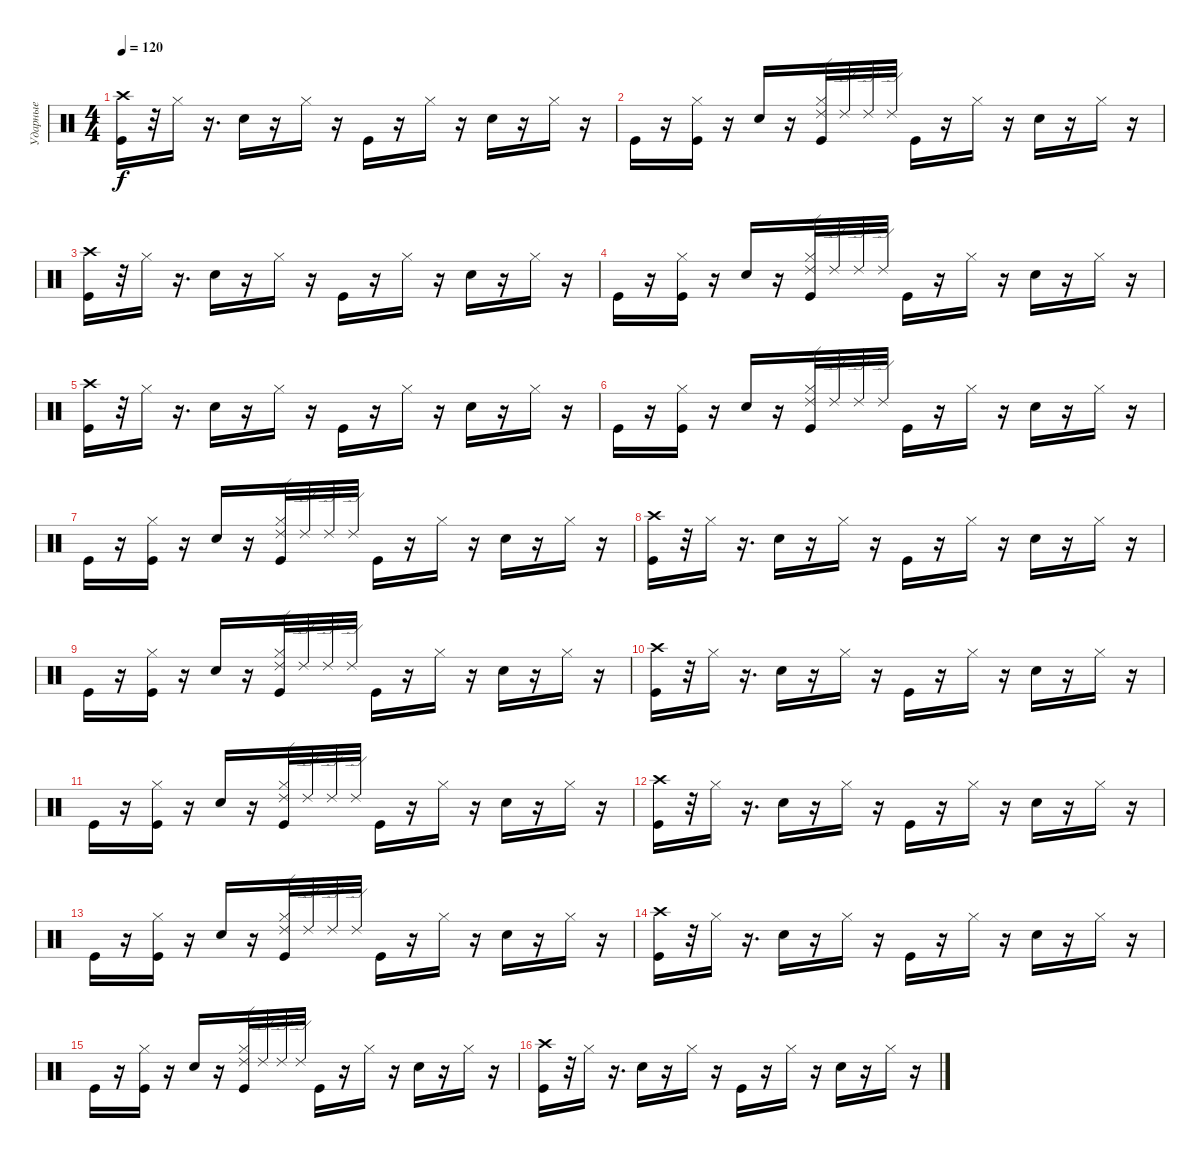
\track ("Ударные" "Ударные") {instrument percussion}
\staff {score}
\articulation defaults
\ts (4 4)
\tempo 120
\clef neutral
\ks c
("Crash high (hit)" "Kick (hit)").16{dy f} r.32 "Hi-Hat (closed)".16 r.16{d} "Electric Snare (hit)".16 r.16 "Hi-Hat (closed)".16 r.16 "Kick (hit)".16 r.16 "Hi-Hat (closed)".16 r.16 "Electric Snare (hit)".16 r.16 "Hi-Hat (closed)".16 r.16 |
"Kick (hit)".16 r.16 ("Hi-Hat (closed)" "Kick (hit)").16 r.16 "Electric Snare (hit)".16 r.16 ("Hi-Hat (closed)" "Kick (hit)" "Ride (edge) 2").32 "Ride (edge) 2".32 "Ride (edge) 2".32 "Ride (edge) 2".32 "Kick (hit)".16 r.16 "Hi-Hat (closed)".16 r.16 "Electric Snare (hit)".16 r.16 "Hi-Hat (closed)".16 r.16 |
("Crash high (hit)" "Kick (hit)").16 r.32 "Hi-Hat (closed)".16 r.16{d} "Electric Snare (hit)".16 r.16 "Hi-Hat (closed)".16 r.16 "Kick (hit)".16 r.16 "Hi-Hat (closed)".16 r.16 "Electric Snare (hit)".16 r.16 "Hi-Hat (closed)".16 r.16 |
"Kick (hit)".16 r.16 ("Hi-Hat (closed)" "Kick (hit)").16 r.16 "Electric Snare (hit)".16 r.16 ("Hi-Hat (closed)" "Kick (hit)" "Ride (edge) 2").32 "Ride (edge) 2".32 "Ride (edge) 2".32 "Ride (edge) 2".32 "Kick (hit)".16 r.16 "Hi-Hat (closed)".16 r.16 "Electric Snare (hit)".16 r.16 "Hi-Hat (closed)".16 r.16 |
("Crash high (hit)" "Kick (hit)").16 r.32 "Hi-Hat (closed)".16 r.16{d} "Electric Snare (hit)".16 r.16 "Hi-Hat (closed)".16 r.16 "Kick (hit)".16 r.16 "Hi-Hat (closed)".16 r.16 "Electric Snare (hit)".16 r.16 "Hi-Hat (closed)".16 r.16 |
"Kick (hit)".16 r.16 ("Hi-Hat (closed)" "Kick (hit)").16 r.16 "Electric Snare (hit)".16 r.16 ("Hi-Hat (closed)" "Kick (hit)" "Ride (edge) 2").32 "Ride (edge) 2".32 "Ride (edge) 2".32 "Ride (edge) 2".32 "Kick (hit)".16 r.16 "Hi-Hat (closed)".16 r.16 "Electric Snare (hit)".16 r.16 "Hi-Hat (closed)".16 r.16 |
"Kick (hit)".16 r.16 ("Hi-Hat (closed)" "Kick (hit)").16 r.16 "Electric Snare (hit)".16 r.16 ("Hi-Hat (closed)" "Kick (hit)" "Ride (edge) 2").32 "Ride (edge) 2".32 "Ride (edge) 2".32 "Ride (edge) 2".32 "Kick (hit)".16 r.16 "Hi-Hat (closed)".16 r.16 "Electric Snare (hit)".16 r.16 "Hi-Hat (closed)".16 r.16 |
("Crash high (hit)" "Kick (hit)").16 r.32 "Hi-Hat (closed)".16 r.16{d} "Electric Snare (hit)".16 r.16 "Hi-Hat (closed)".16 r.16 "Kick (hit)".16 r.16 "Hi-Hat (closed)".16 r.16 "Electric Snare (hit)".16 r.16 "Hi-Hat (closed)".16 r.16 |
"Kick (hit)".16 r.16 ("Hi-Hat (closed)" "Kick (hit)").16 r.16 "Electric Snare (hit)".16 r.16 ("Hi-Hat (closed)" "Kick (hit)" "Ride (edge) 2").32 "Ride (edge) 2".32 "Ride (edge) 2".32 "Ride (edge) 2".32 "Kick (hit)".16 r.16 "Hi-Hat (closed)".16 r.16 "Electric Snare (hit)".16 r.16 "Hi-Hat (closed)".16 r.16 |
("Crash high (hit)" "Kick (hit)").16 r.32 "Hi-Hat (closed)".16 r.16{d} "Electric Snare (hit)".16 r.16 "Hi-Hat (closed)".16 r.16 "Kick (hit)".16 r.16 "Hi-Hat (closed)".16 r.16 "Electric Snare (hit)".16 r.16 "Hi-Hat (closed)".16 r.16 |
"Kick (hit)".16 r.16 ("Hi-Hat (closed)" "Kick (hit)").16 r.16 "Electric Snare (hit)".16 r.16 ("Hi-Hat (closed)" "Kick (hit)" "Ride (edge) 2").32 "Ride (edge) 2".32 "Ride (edge) 2".32 "Ride (edge) 2".32 "Kick (hit)".16 r.16 "Hi-Hat (closed)".16 r.16 "Electric Snare (hit)".16 r.16 "Hi-Hat (closed)".16 r.16 |
("Crash high (hit)" "Kick (hit)").16 r.32 "Hi-Hat (closed)".16 r.16{d} "Electric Snare (hit)".16 r.16 "Hi-Hat (closed)".16 r.16 "Kick (hit)".16 r.16 "Hi-Hat (closed)".16 r.16 "Electric Snare (hit)".16 r.16 "Hi-Hat (closed)".16 r.16 |
"Kick (hit)".16 r.16 ("Hi-Hat (closed)" "Kick (hit)").16 r.16 "Electric Snare (hit)".16 r.16 ("Hi-Hat (closed)" "Kick (hit)" "Ride (edge) 2").32 "Ride (edge) 2".32 "Ride (edge) 2".32 "Ride (edge) 2".32 "Kick (hit)".16 r.16 "Hi-Hat (closed)".16 r.16 "Electric Snare (hit)".16 r.16 "Hi-Hat (closed)".16 r.16 |
("Crash high (hit)" "Kick (hit)").16 r.32 "Hi-Hat (closed)".16 r.16{d} "Electric Snare (hit)".16 r.16 "Hi-Hat (closed)".16 r.16 "Kick (hit)".16 r.16 "Hi-Hat (closed)".16 r.16 "Electric Snare (hit)".16 r.16 "Hi-Hat (closed)".16 r.16 |
"Kick (hit)".16 r.16 ("Hi-Hat (closed)" "Kick (hit)").16 r.16 "Electric Snare (hit)".16 r.16 ("Hi-Hat (closed)" "Kick (hit)" "Ride (edge) 2").32 "Ride (edge) 2".32 "Ride (edge) 2".32 "Ride (edge) 2".32 "Kick (hit)".16 r.16 "Hi-Hat (closed)".16 r.16 "Electric Snare (hit)".16 r.16 "Hi-Hat (closed)".16 r.16 |
("Crash high (hit)" "Kick (hit)").16 r.32 "Hi-Hat (closed)".16 r.16{d} "Electric Snare (hit)".16 r.16 "Hi-Hat (closed)".16 r.16 "Kick (hit)".16 r.16 "Hi-Hat (closed)".16 r.16 "Electric Snare (hit)".16 r.16 "Hi-Hat (closed)".16 r.16
